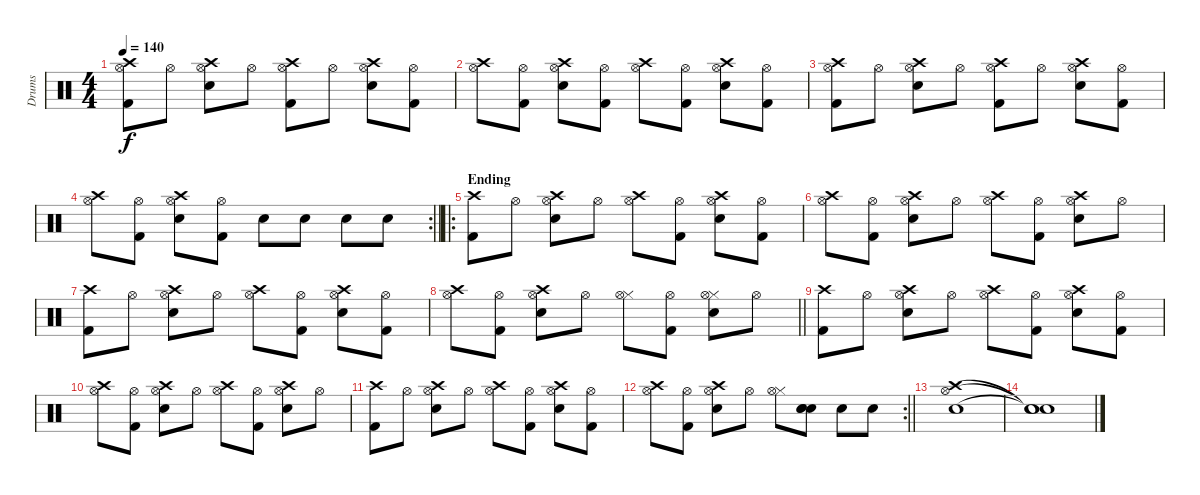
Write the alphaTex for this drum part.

\track ("Drums" "Drums") {instrument percussion}
\staff {score}
\articulation defaults
\ts (4 4)
\tempo 140
\clef neutral
\ks c
("Crash high (hit)" "Hi-Hat (open)" "Kick (hit) 2").8{dy f} "Hi-Hat (open)".8 ("Crash high (hit)" "Hi-Hat (open)" "Electric Snare (hit)").8 "Hi-Hat (open)".8 ("Crash high (hit)" "Hi-Hat (open)" "Kick (hit) 2").8 "Hi-Hat (open)".8 ("Crash high (hit)" "Hi-Hat (open)" "Electric Snare (hit)").8 ("Hi-Hat (open)" "Kick (hit) 2").8 |
("Crash high (hit)" "Hi-Hat (open)").8 ("Hi-Hat (open)" "Kick (hit) 2").8 ("Crash high (hit)" "Hi-Hat (open)" "Electric Snare (hit)").8 ("Hi-Hat (open)" "Kick (hit) 2").8 ("Crash high (hit)" "Hi-Hat (open)").8 ("Hi-Hat (open)" "Kick (hit) 2").8 ("Crash high (hit)" "Hi-Hat (open)" "Electric Snare (hit)").8 ("Hi-Hat (open)" "Kick (hit) 2").8 |
("Crash high (hit)" "Hi-Hat (open)" "Kick (hit) 2").8 "Hi-Hat (open)".8 ("Crash high (hit)" "Hi-Hat (open)" "Electric Snare (hit)").8 "Hi-Hat (open)".8 ("Crash high (hit)" "Hi-Hat (open)" "Kick (hit) 2").8 "Hi-Hat (open)".8 ("Crash high (hit)" "Hi-Hat (open)" "Electric Snare (hit)").8 ("Hi-Hat (open)" "Kick (hit) 2").8 |
\rc 2
\barLineRight lightlight
("Crash high (hit)" "Hi-Hat (open)").8 ("Hi-Hat (open)" "Kick (hit) 2").8 ("Crash high (hit)" "Hi-Hat (open)" "Electric Snare (hit)").8 ("Hi-Hat (open)" "Kick (hit) 2").8 "Electric Snare (hit)".8 "Electric Snare (hit)".8 "Electric Snare (hit)".8 "Electric Snare (hit)".8 |
\ro
\section ("" "Ending")
("Crash high (hit)" "Kick (hit) 2").8 "Hi-Hat (open)".8 ("Crash high (hit)" "Snare (hit) 2" "Hi-Hat (open)").8 "Hi-Hat (open)".8 ("Crash high (hit)" "Hi-Hat (open)").8 ("Kick (hit) 2" "Hi-Hat (open)").8 ("Crash high (hit)" "Snare (hit) 2" "Hi-Hat (open)").8 ("Kick (hit) 2" "Hi-Hat (open)").8 |
("Crash high (hit)" "Hi-Hat (open)").8 ("Kick (hit) 2" "Hi-Hat (open)").8 ("Crash high (hit)" "Snare (hit) 2" "Hi-Hat (open)").8 "Hi-Hat (open)".8 ("Crash high (hit)" "Hi-Hat (open)").8 ("Kick (hit) 2" "Hi-Hat (open)").8 ("Crash high (hit)" "Snare (hit) 2" "Hi-Hat (open)").8 "Hi-Hat (open)".8 |
("Crash high (hit)" "Kick (hit) 2").8 "Hi-Hat (open)".8 ("Crash high (hit)" "Snare (hit) 2" "Hi-Hat (open)").8 "Hi-Hat (open)".8 ("Crash high (hit)" "Hi-Hat (open)").8 ("Kick (hit) 2" "Hi-Hat (open)").8 ("Crash high (hit)" "Snare (hit) 2" "Hi-Hat (open)").8 ("Kick (hit) 2" "Hi-Hat (open)").8 |
\barLineRight lightlight
("Crash high (hit)" "Hi-Hat (open)").8 ("Kick (hit) 2" "Hi-Hat (open)").8 ("Crash high (hit)" "Snare (hit) 2" "Hi-Hat (open)").8 "Hi-Hat (open)".8 ("Hi-Hat (closed)" "Hi-Hat (open)").8 ("Kick (hit) 2" "Hi-Hat (open)").8 ("Hi-Hat (closed)" "Snare (hit) 2" "Hi-Hat (open)").8 "Hi-Hat (open)".8 |
("Crash high (hit)" "Kick (hit) 2").8 "Hi-Hat (open)".8 ("Crash high (hit)" "Snare (hit) 2" "Hi-Hat (open)").8 "Hi-Hat (open)".8 ("Crash high (hit)" "Hi-Hat (open)").8 ("Kick (hit) 2" "Hi-Hat (open)").8 ("Crash high (hit)" "Snare (hit) 2" "Hi-Hat (open)").8 ("Kick (hit) 2" "Hi-Hat (open)").8 |
("Crash high (hit)" "Hi-Hat (open)").8 ("Kick (hit) 2" "Hi-Hat (open)").8 ("Crash high (hit)" "Snare (hit) 2" "Hi-Hat (open)").8 "Hi-Hat (open)".8 ("Crash high (hit)" "Hi-Hat (open)").8 ("Kick (hit) 2" "Hi-Hat (open)").8 ("Crash high (hit)" "Snare (hit) 2" "Hi-Hat (open)").8 "Hi-Hat (open)".8 |
("Crash high (hit)" "Kick (hit) 2").8 "Hi-Hat (open)".8 ("Crash high (hit)" "Snare (hit) 2" "Hi-Hat (open)").8 "Hi-Hat (open)".8 ("Crash high (hit)" "Hi-Hat (open)").8 ("Kick (hit) 2" "Hi-Hat (open)").8 ("Crash high (hit)" "Snare (hit) 2" "Hi-Hat (open)").8 ("Kick (hit) 2" "Hi-Hat (open)").8 |
\rc 2
\barLineRight lightlight
("Crash high (hit)" "Hi-Hat (open)").8 ("Kick (hit) 2" "Hi-Hat (open)").8 ("Crash high (hit)" "Snare (hit) 2" "Hi-Hat (open)").8 "Hi-Hat (open)".8 ("Hi-Hat (closed)" "Hi-Hat (open)").8 ("Snare (hit) 2" "Snare (hit) 2" "Electric Snare (hit)").8 "Electric Snare (hit)".8 "Electric Snare (hit)".8 |
("Crash high (hit)" "Snare (hit) 2" "Hi-Hat (open)").1 |
("Snare (hit)"{t} "Snare (hit)"{t} "Snare (hit)"{t}).1
